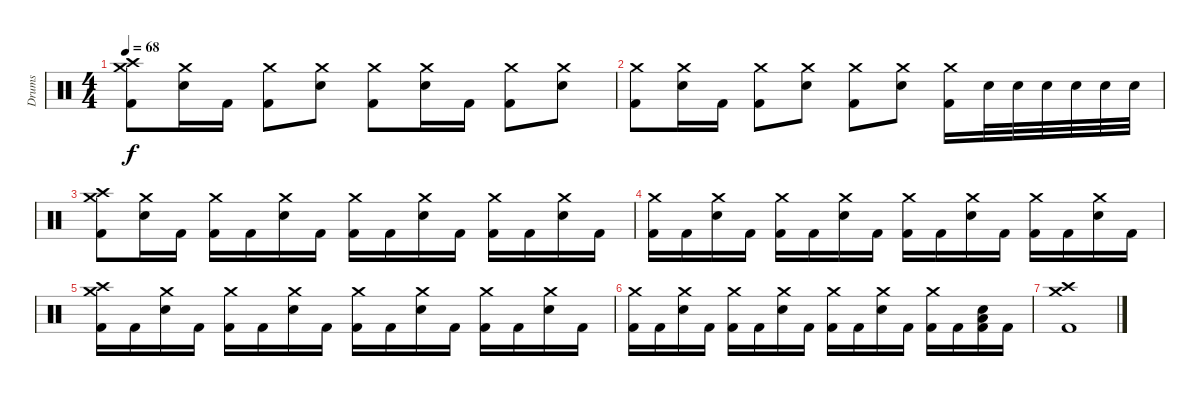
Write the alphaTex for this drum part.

\track ("Drums" "Drums") {instrument percussion}
\staff {score}
\articulation defaults
\ts (4 4)
\tempo 68
\clef neutral
\ks c
("Crash medium (hit)" "Crash high (hit)" "Kick (hit) 2").8{dy f} ("Crash medium (hit)" "Electric Snare (hit)").16 "Kick (hit) 2".16 ("Crash medium (hit)" "Kick (hit) 2").8 ("Crash medium (hit)" "Electric Snare (hit)").8 ("Crash medium (hit)" "Kick (hit) 2").8 ("Crash medium (hit)" "Electric Snare (hit)").16 "Kick (hit) 2".16 ("Crash medium (hit)" "Kick (hit) 2").8 ("Crash medium (hit)" "Electric Snare (hit)").8 |
("Crash medium (hit)" "Kick (hit) 2").8 ("Crash medium (hit)" "Electric Snare (hit)").16 "Kick (hit) 2".16 ("Crash medium (hit)" "Kick (hit) 2").8 ("Crash medium (hit)" "Electric Snare (hit)").8 ("Crash medium (hit)" "Kick (hit) 2").8 ("Crash medium (hit)" "Electric Snare (hit)").8 ("Crash medium (hit)" "Kick (hit) 2").16 "Electric Snare (hit)".32 "Electric Snare (hit)".32 "Electric Snare (hit)".32 "Electric Snare (hit)".32 "Electric Snare (hit)".32 "Electric Snare (hit)".32 |
("Crash medium (hit)" "Crash high (hit)" "Kick (hit) 2").8 ("Crash medium (hit)" "Electric Snare (hit)").16 "Kick (hit) 2".16 ("Crash medium (hit)" "Kick (hit) 2").16 "Kick (hit) 2".16 ("Crash medium (hit)" "Electric Snare (hit)").16 "Kick (hit) 2".16 ("Crash medium (hit)" "Kick (hit) 2").16 "Kick (hit) 2".16 ("Crash medium (hit)" "Electric Snare (hit)").16 "Kick (hit) 2".16 ("Crash medium (hit)" "Kick (hit) 2").16 "Kick (hit) 2".16 ("Crash medium (hit)" "Electric Snare (hit)").16 "Kick (hit) 2".16 |
("Crash medium (hit)" "Kick (hit) 2").16 "Kick (hit) 2".16 ("Crash medium (hit)" "Electric Snare (hit)").16 "Kick (hit) 2".16 ("Crash medium (hit)" "Kick (hit) 2").16 "Kick (hit) 2".16 ("Crash medium (hit)" "Electric Snare (hit)").16 "Kick (hit) 2".16 ("Crash medium (hit)" "Kick (hit) 2").16 "Kick (hit) 2".16 ("Crash medium (hit)" "Electric Snare (hit)").16 "Kick (hit) 2".16 ("Crash medium (hit)" "Kick (hit) 2").16 "Kick (hit) 2".16 ("Crash medium (hit)" "Electric Snare (hit)").16 "Kick (hit) 2".16 |
("Crash medium (hit)" "Crash high (hit)" "Kick (hit) 2").16 "Kick (hit) 2".16 ("Crash medium (hit)" "Electric Snare (hit)").16 "Kick (hit) 2".16 ("Crash medium (hit)" "Kick (hit) 2").16 "Kick (hit) 2".16 ("Crash medium (hit)" "Electric Snare (hit)").16 "Kick (hit) 2".16 ("Crash medium (hit)" "Kick (hit) 2").16 "Kick (hit) 2".16 ("Crash medium (hit)" "Electric Snare (hit)").16 "Kick (hit) 2".16 ("Crash medium (hit)" "Kick (hit) 2").16 "Kick (hit) 2".16 ("Crash medium (hit)" "Electric Snare (hit)").16 "Kick (hit) 2".16 |
("Crash medium (hit)" "Kick (hit) 2").16 "Kick (hit) 2".16 ("Crash medium (hit)" "Electric Snare (hit)").16 "Kick (hit) 2".16 ("Crash medium (hit)" "Kick (hit) 2").16 "Kick (hit) 2".16 ("Crash medium (hit)" "Electric Snare (hit)").16 "Kick (hit) 2".16 ("Crash medium (hit)" "Kick (hit) 2").16 "Kick (hit) 2".16 ("Crash medium (hit)" "Electric Snare (hit)").16 "Kick (hit) 2".16 ("Crash medium (hit)" "Kick (hit) 2").16 "Kick (hit) 2".16 ("Low Floor Tom (hit)" "Electric Snare (hit)" "Kick (hit) 2").16 "Kick (hit) 2".16 |
("Crash medium (hit)" "Crash high (hit)" "Kick (hit) 2").1
